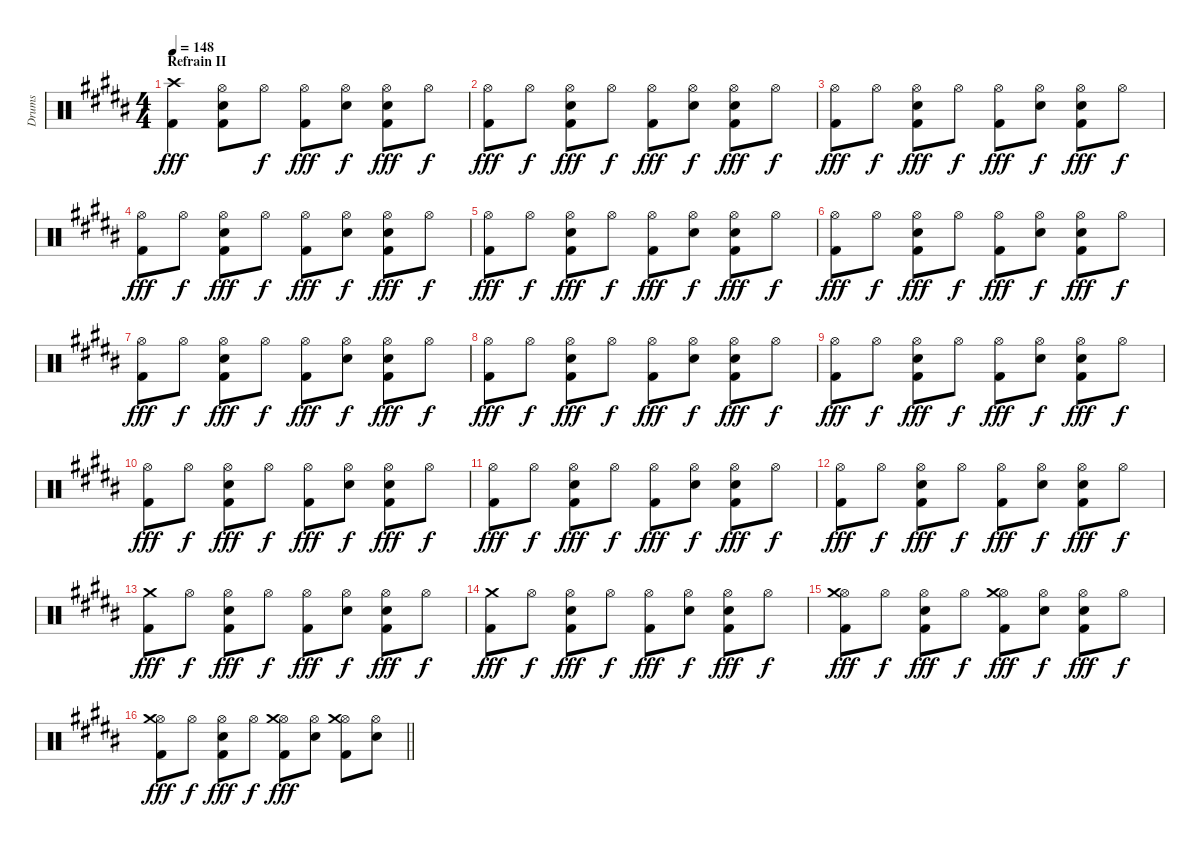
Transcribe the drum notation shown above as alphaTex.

\track ("Drums" "Drums") {instrument percussion}
\staff {score}
\articulation defaults
\ts (4 4)
\section ("" "Refrain II")
\tempo 148
\clef neutral
\ks b
("Crash high (hit)" "Kick (hit) 2").4{dy fff} ("Hi-Hat (open)" "Snare (hit) 2" "Kick (hit) 2").8 "Hi-Hat (open)".8{dy f} ("Hi-Hat (open)" "Kick (hit) 2").8{dy fff} ("Hi-Hat (open)" "Electric Snare (hit)").8{dy f} ("Hi-Hat (open)" "Snare (hit) 2" "Kick (hit) 2").8{dy fff} "Hi-Hat (open)".8{dy f} |
("Hi-Hat (open)" "Kick (hit) 2").8{dy fff} "Hi-Hat (open)".8{dy f} ("Hi-Hat (open)" "Snare (hit) 2" "Kick (hit) 2").8{dy fff} "Hi-Hat (open)".8{dy f} ("Hi-Hat (open)" "Kick (hit) 2").8{dy fff} ("Hi-Hat (open)" "Electric Snare (hit)").8{dy f} ("Hi-Hat (open)" "Snare (hit) 2" "Kick (hit) 2").8{dy fff} "Hi-Hat (open)".8{dy f} |
("Hi-Hat (open)" "Kick (hit) 2").8{dy fff} "Hi-Hat (open)".8{dy f} ("Hi-Hat (open)" "Snare (hit) 2" "Kick (hit) 2").8{dy fff} "Hi-Hat (open)".8{dy f} ("Hi-Hat (open)" "Kick (hit) 2").8{dy fff} ("Hi-Hat (open)" "Electric Snare (hit)").8{dy f} ("Hi-Hat (open)" "Snare (hit) 2" "Kick (hit) 2").8{dy fff} "Hi-Hat (open)".8{dy f} |
("Hi-Hat (open)" "Kick (hit) 2").8{dy fff} "Hi-Hat (open)".8{dy f} ("Hi-Hat (open)" "Snare (hit) 2" "Kick (hit) 2").8{dy fff} "Hi-Hat (open)".8{dy f} ("Hi-Hat (open)" "Kick (hit) 2").8{dy fff} ("Hi-Hat (open)" "Electric Snare (hit)").8{dy f} ("Hi-Hat (open)" "Snare (hit) 2" "Kick (hit) 2").8{dy fff} "Hi-Hat (open)".8{dy f} |
("Hi-Hat (open)" "Kick (hit) 2").8{dy fff} "Hi-Hat (open)".8{dy f} ("Hi-Hat (open)" "Snare (hit) 2" "Kick (hit) 2").8{dy fff} "Hi-Hat (open)".8{dy f} ("Hi-Hat (open)" "Kick (hit) 2").8{dy fff} ("Hi-Hat (open)" "Electric Snare (hit)").8{dy f} ("Hi-Hat (open)" "Snare (hit) 2" "Kick (hit) 2").8{dy fff} "Hi-Hat (open)".8{dy f} |
("Hi-Hat (open)" "Kick (hit) 2").8{dy fff} "Hi-Hat (open)".8{dy f} ("Hi-Hat (open)" "Snare (hit) 2" "Kick (hit) 2").8{dy fff} "Hi-Hat (open)".8{dy f} ("Hi-Hat (open)" "Kick (hit) 2").8{dy fff} ("Hi-Hat (open)" "Electric Snare (hit)").8{dy f} ("Hi-Hat (open)" "Snare (hit) 2" "Kick (hit) 2").8{dy fff} "Hi-Hat (open)".8{dy f} |
("Hi-Hat (open)" "Kick (hit) 2").8{dy fff} "Hi-Hat (open)".8{dy f} ("Hi-Hat (open)" "Snare (hit) 2" "Kick (hit) 2").8{dy fff} "Hi-Hat (open)".8{dy f} ("Hi-Hat (open)" "Kick (hit) 2").8{dy fff} ("Hi-Hat (open)" "Electric Snare (hit)").8{dy f} ("Hi-Hat (open)" "Snare (hit) 2" "Kick (hit) 2").8{dy fff} "Hi-Hat (open)".8{dy f} |
("Hi-Hat (open)" "Kick (hit) 2").8{dy fff} "Hi-Hat (open)".8{dy f} ("Hi-Hat (open)" "Snare (hit) 2" "Kick (hit) 2").8{dy fff} "Hi-Hat (open)".8{dy f} ("Hi-Hat (open)" "Kick (hit) 2").8{dy fff} ("Hi-Hat (open)" "Electric Snare (hit)").8{dy f} ("Hi-Hat (open)" "Snare (hit) 2" "Kick (hit) 2").8{dy fff} "Hi-Hat (open)".8{dy f} |
("Hi-Hat (open)" "Kick (hit) 2").8{dy fff} "Hi-Hat (open)".8{dy f} ("Hi-Hat (open)" "Snare (hit) 2" "Kick (hit) 2").8{dy fff} "Hi-Hat (open)".8{dy f} ("Hi-Hat (open)" "Kick (hit) 2").8{dy fff} ("Hi-Hat (open)" "Electric Snare (hit)").8{dy f} ("Hi-Hat (open)" "Snare (hit) 2" "Kick (hit) 2").8{dy fff} "Hi-Hat (open)".8{dy f} |
("Hi-Hat (open)" "Kick (hit) 2").8{dy fff} "Hi-Hat (open)".8{dy f} ("Hi-Hat (open)" "Snare (hit) 2" "Kick (hit) 2").8{dy fff} "Hi-Hat (open)".8{dy f} ("Hi-Hat (open)" "Kick (hit) 2").8{dy fff} ("Hi-Hat (open)" "Electric Snare (hit)").8{dy f} ("Hi-Hat (open)" "Snare (hit) 2" "Kick (hit) 2").8{dy fff} "Hi-Hat (open)".8{dy f} |
("Hi-Hat (open)" "Kick (hit) 2").8{dy fff} "Hi-Hat (open)".8{dy f} ("Hi-Hat (open)" "Snare (hit) 2" "Kick (hit) 2").8{dy fff} "Hi-Hat (open)".8{dy f} ("Hi-Hat (open)" "Kick (hit) 2").8{dy fff} ("Hi-Hat (open)" "Electric Snare (hit)").8{dy f} ("Hi-Hat (open)" "Snare (hit) 2" "Kick (hit) 2").8{dy fff} "Hi-Hat (open)".8{dy f} |
("Hi-Hat (open)" "Kick (hit) 2").8{dy fff} "Hi-Hat (open)".8{dy f} ("Hi-Hat (open)" "Snare (hit) 2" "Kick (hit) 2").8{dy fff} "Hi-Hat (open)".8{dy f} ("Hi-Hat (open)" "Kick (hit) 2").8{dy fff} ("Hi-Hat (open)" "Electric Snare (hit)").8{dy f} ("Hi-Hat (open)" "Snare (hit) 2" "Kick (hit) 2").8{dy fff} "Hi-Hat (open)".8{dy f} |
("Crash medium (hit)" "Kick (hit) 2").8{dy fff} "Hi-Hat (open)".8{dy f} ("Hi-Hat (open)" "Snare (hit) 2" "Kick (hit) 2").8{dy fff} "Hi-Hat (open)".8{dy f} ("Hi-Hat (open)" "Kick (hit) 2").8{dy fff} ("Hi-Hat (open)" "Electric Snare (hit)").8{dy f} ("Hi-Hat (open)" "Snare (hit) 2" "Kick (hit) 2").8{dy fff} "Hi-Hat (open)".8{dy f} |
("Crash medium (hit)" "Kick (hit) 2").8{dy fff} "Hi-Hat (open)".8{dy f} ("Hi-Hat (open)" "Snare (hit) 2" "Kick (hit) 2").8{dy fff} "Hi-Hat (open)".8{dy f} ("Hi-Hat (open)" "Kick (hit) 2").8{dy fff} ("Hi-Hat (open)" "Electric Snare (hit)").8{dy f} ("Hi-Hat (open)" "Snare (hit) 2" "Kick (hit) 2").8{dy fff} "Hi-Hat (open)".8{dy f} |
("Hi-Hat (open)" "Crash medium (hit)" "Kick (hit) 2").8{dy fff} "Hi-Hat (open)".8{dy f} ("Hi-Hat (open)" "Snare (hit) 2" "Kick (hit) 2").8{dy fff} "Hi-Hat (open)".8{dy f} ("Hi-Hat (open)" "Crash medium (hit)" "Kick (hit) 2").8{dy fff} ("Hi-Hat (open)" "Electric Snare (hit)").8{dy f} ("Hi-Hat (open)" "Snare (hit) 2" "Kick (hit) 2").8{dy fff} "Hi-Hat (open)".8{dy f} |
\barLineRight lightlight
("Hi-Hat (open)" "Crash medium (hit)" "Kick (hit) 2").8{dy fff} "Hi-Hat (open)".8{dy f} ("Hi-Hat (open)" "Snare (hit) 2" "Kick (hit) 2").8{dy fff} "Hi-Hat (open)".8{dy f} ("Hi-Hat (open)" "Crash medium (hit)" "Kick (hit) 2").8{dy fff} ("Hi-Hat (open)" "Snare (hit) 2").8 ("Hi-Hat (open)" "Crash medium (hit)" "Kick (hit) 2").8 ("Hi-Hat (open)" "Snare (hit) 2").8
